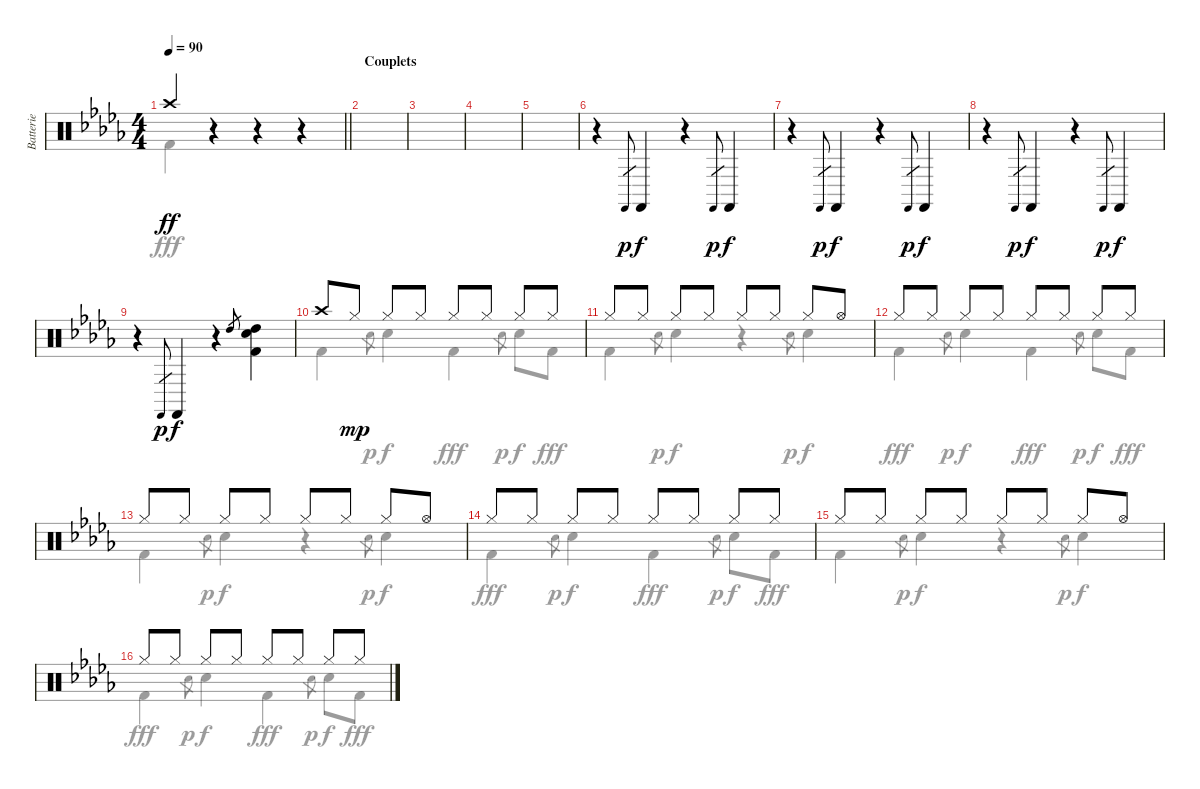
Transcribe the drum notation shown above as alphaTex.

\track ("Batterie" "Batterie") {instrument percussion}
\staff {score}
\articulation defaults
\voice
\ts (4 4)
\tempo 90
\clef neutral
\barLineRight lightlight
\ks db "Crash high (hit)".4{dy ff}
r.4 r.4 r.4 |
\section ("" "Couplets")
|
|
|
|
r.4 "Castanets (hit)".8{gr dy p} "Castanets (hit)".4{dy f} r.4 "Castanets (hit)".8{gr dy p} "Castanets (hit)".4{dy f} |
r.4 "Castanets (hit)".8{gr dy p} "Castanets (hit)".4{dy f} r.4 "Castanets (hit)".8{gr dy p} "Castanets (hit)".4{dy f} |
r.4 "Castanets (hit)".8{gr dy p} "Castanets (hit)".4{dy f} r.4 "Castanets (hit)".8{gr dy p} "Castanets (hit)".4{dy f} |
r.4 "Castanets (hit)".8{gr dy p} "Castanets (hit)".4{dy f} r.4 "High Tom (hit)".8{gr} ("High Tom (hit)" "Kick (hit) 2" "Hand Clap (hit)").4 |
"Crash high (hit)".8 "Hi-Hat (closed)".8{dy mp} "Hi-Hat (closed)".8 "Hi-Hat (closed)".8 "Hi-Hat (closed)".8 "Hi-Hat (closed)".8 "Hi-Hat (closed)".8 "Hi-Hat (closed)".8 |
"Hi-Hat (closed)".8 "Hi-Hat (closed)".8 "Hi-Hat (closed)".8 "Hi-Hat (closed)".8 "Hi-Hat (closed)".8 "Hi-Hat (closed)".8 "Hi-Hat (closed)".8 "Hi-Hat (open)".8 |
"Hi-Hat (closed)".8 "Hi-Hat (closed)".8 "Hi-Hat (closed)".8 "Hi-Hat (closed)".8 "Hi-Hat (closed)".8 "Hi-Hat (closed)".8 "Hi-Hat (closed)".8 "Hi-Hat (closed)".8 |
"Hi-Hat (closed)".8 "Hi-Hat (closed)".8 "Hi-Hat (closed)".8 "Hi-Hat (closed)".8 "Hi-Hat (closed)".8 "Hi-Hat (closed)".8 "Hi-Hat (closed)".8 "Hi-Hat (open)".8 |
"Hi-Hat (closed)".8 "Hi-Hat (closed)".8 "Hi-Hat (closed)".8 "Hi-Hat (closed)".8 "Hi-Hat (closed)".8 "Hi-Hat (closed)".8 "Hi-Hat (closed)".8 "Hi-Hat (closed)".8 |
"Hi-Hat (closed)".8 "Hi-Hat (closed)".8 "Hi-Hat (closed)".8 "Hi-Hat (closed)".8 "Hi-Hat (closed)".8 "Hi-Hat (closed)".8 "Hi-Hat (closed)".8 "Hi-Hat (open)".8 |
"Hi-Hat (closed)".8 "Hi-Hat (closed)".8 "Hi-Hat (closed)".8 "Hi-Hat (closed)".8 "Hi-Hat (closed)".8 "Hi-Hat (closed)".8 "Hi-Hat (closed)".8 "Hi-Hat (closed)".8
\voice
\clef neutral
\ottava regular
\simile none
\barLineRight lightlight
\ks db "Kick (hit) 2".4{dy fff}
r.4 r.4 r.4 |
|
|
|
|
|
|
|
|
"Kick (hit) 2".4 "Hand Clap (hit)".8{gr dy p} "Hand Clap (hit)".4{dy f} "Kick (hit) 2".4{dy fff} "Hand Clap (hit)".8{gr dy p} "Hand Clap (hit)".8{dy f} "Kick (hit) 2".8{dy fff} |
"Kick (hit) 2".4 "Hand Clap (hit)".8{gr dy p} "Hand Clap (hit)".4{dy f} r.4 "Hand Clap (hit)".8{gr dy p} "Hand Clap (hit)".4{dy f} |
"Kick (hit) 2".4{dy fff} "Hand Clap (hit)".8{gr dy p} "Hand Clap (hit)".4{dy f} "Kick (hit) 2".4{dy fff} "Hand Clap (hit)".8{gr dy p} "Hand Clap (hit)".8{dy f} "Kick (hit) 2".8{dy fff} |
"Kick (hit) 2".4 "Hand Clap (hit)".8{gr dy p} "Hand Clap (hit)".4{dy f} r.4 "Hand Clap (hit)".8{gr dy p} "Hand Clap (hit)".4{dy f} |
"Kick (hit) 2".4{dy fff} "Hand Clap (hit)".8{gr dy p} "Hand Clap (hit)".4{dy f} "Kick (hit) 2".4{dy fff} "Hand Clap (hit)".8{gr dy p} "Hand Clap (hit)".8{dy f} "Kick (hit) 2".8{dy fff} |
"Kick (hit) 2".4 "Hand Clap (hit)".8{gr dy p} "Hand Clap (hit)".4{dy f} r.4 "Hand Clap (hit)".8{gr dy p} "Hand Clap (hit)".4{dy f} |
"Kick (hit) 2".4{dy fff} "Hand Clap (hit)".8{gr dy p} "Hand Clap (hit)".4{dy f} "Kick (hit) 2".4{dy fff} "Hand Clap (hit)".8{gr dy p} "Hand Clap (hit)".8{dy f} "Kick (hit) 2".8{dy fff}
